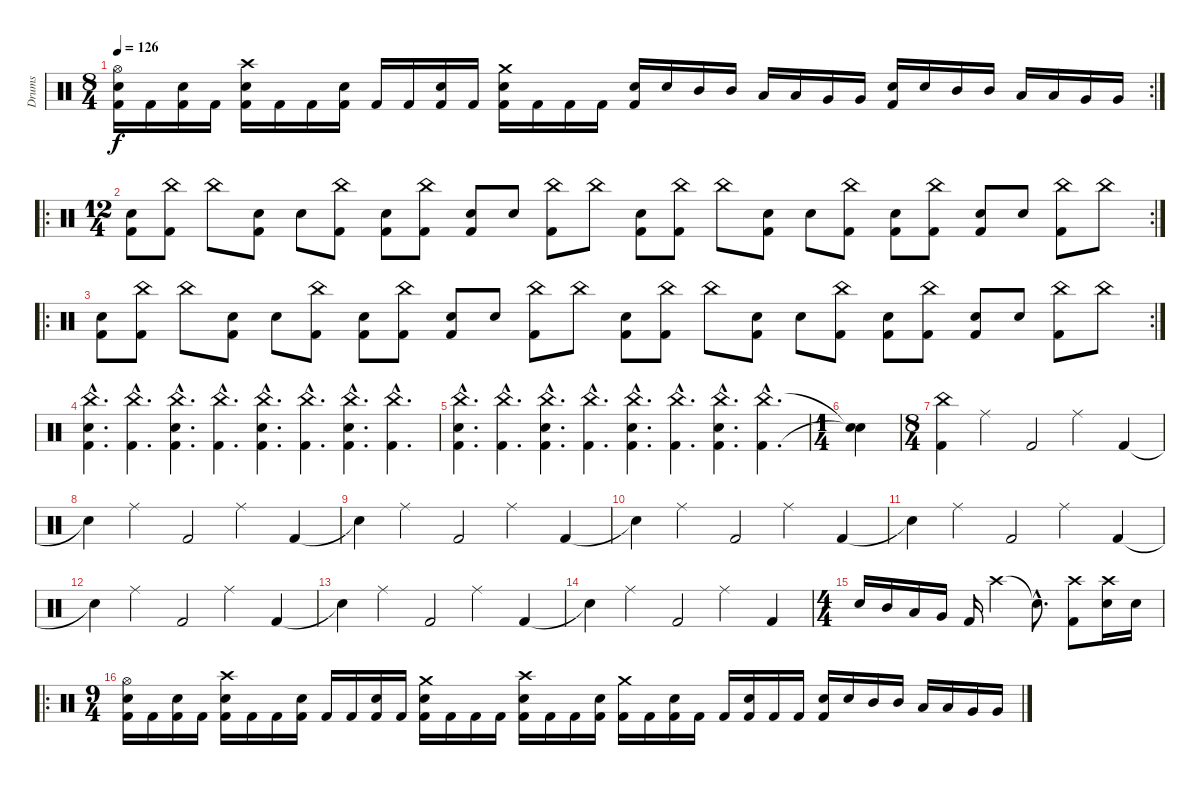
\track ("Drums" "Drums") {instrument percussion}
\staff {score}
\articulation defaults
\rc 2
\ts (8 4)
\tempo 126
\clef neutral
\ks c
("Hi-Hat (open)" "Electric Snare (hit)" "Kick (hit) 2").16{dy f} "Kick (hit) 2".16 ("Electric Snare (hit)" "Kick (hit) 2").16 "Kick (hit) 2".16 ("Crash high (hit)" "Electric Snare (hit)" "Kick (hit) 2").16 "Kick (hit) 2".16 "Kick (hit) 2".16 ("Electric Snare (hit)" "Kick (hit) 2").16 "Kick (hit) 2".16 "Kick (hit) 2".16 ("Electric Snare (hit)" "Kick (hit) 2").16 "Kick (hit) 2".16 ("Crash medium (hit)" "Electric Snare (hit)" "Kick (hit) 2").16 "Kick (hit) 2".16 "Kick (hit) 2".16 "Kick (hit) 2".16 ("Electric Snare (hit)" "Kick (hit) 2").16 "Electric Snare (hit)".16 "Mid Tom (hit)".16 "Mid Tom (hit)".16 "Low Tom (hit)".16 "Low Tom (hit)".16 "Very Low Tom (hit)".16 "Very Low Tom (hit)".16 ("Electric Snare (hit)" "Kick (hit) 2").16 "Electric Snare (hit)".16 "Mid Tom (hit)".16 "Mid Tom (hit)".16 "Low Tom (hit)".16 "Low Tom (hit)".16 "Very Low Tom (hit)".16 "Very Low Tom (hit)".16 |
\ro
\rc 2
\ts (12 4)
("Electric Snare (hit)" "Kick (hit) 2").8 ("China (hit)" "Kick (hit) 2").8 "China (hit)".8 ("Electric Snare (hit)" "Kick (hit) 2").8 "Electric Snare (hit)".8 ("China (hit)" "Kick (hit) 2").8 ("Electric Snare (hit)" "Kick (hit) 2").8 ("China (hit)" "Kick (hit) 2").8 ("Electric Snare (hit)" "Kick (hit) 2").8 "Electric Snare (hit)".8 ("China (hit)" "Kick (hit) 2").8 "China (hit)".8 ("Electric Snare (hit)" "Kick (hit) 2").8 ("China (hit)" "Kick (hit) 2").8 "China (hit)".8 ("Electric Snare (hit)" "Kick (hit) 2").8 "Electric Snare (hit)".8 ("China (hit)" "Kick (hit) 2").8 ("Electric Snare (hit)" "Kick (hit) 2").8 ("China (hit)" "Kick (hit) 2").8 ("Electric Snare (hit)" "Kick (hit) 2").8 "Electric Snare (hit)".8 ("China (hit)" "Kick (hit) 2").8 "China (hit)".8 |
\ro
\rc 2
("Electric Snare (hit)" "Kick (hit) 2").8 ("China (hit)" "Kick (hit) 2").8 "China (hit)".8 ("Electric Snare (hit)" "Kick (hit) 2").8 "Electric Snare (hit)".8 ("China (hit)" "Kick (hit) 2").8 ("Electric Snare (hit)" "Kick (hit) 2").8 ("China (hit)" "Kick (hit) 2").8 ("Electric Snare (hit)" "Kick (hit) 2").8 "Electric Snare (hit)".8 ("China (hit)" "Kick (hit) 2").8 "China (hit)".8 ("Electric Snare (hit)" "Kick (hit) 2").8 ("China (hit)" "Kick (hit) 2").8 "China (hit)".8 ("Electric Snare (hit)" "Kick (hit) 2").8 "Electric Snare (hit)".8 ("China (hit)" "Kick (hit) 2").8 ("Electric Snare (hit)" "Kick (hit) 2").8 ("China (hit)" "Kick (hit) 2").8 ("Electric Snare (hit)" "Kick (hit) 2").8 "Electric Snare (hit)".8 ("China (hit)" "Kick (hit) 2").8 "China (hit)".8 |
("China (hit)"{hac} "Electric Snare (hit)"{hac} "Kick (hit) 2"{hac}).4{d} ("China (hit)"{hac} "Kick (hit) 2"{hac}).4{d} ("China (hit)"{hac} "Electric Snare (hit)"{hac} "Kick (hit) 2"{hac}).4{d} ("China (hit)"{hac} "Kick (hit) 2"{hac}).4{d} ("China (hit)"{hac} "Electric Snare (hit)"{hac} "Kick (hit) 2"{hac}).4{d} ("China (hit)"{hac} "Kick (hit) 2"{hac}).4{d} ("China (hit)"{hac} "Electric Snare (hit)"{hac} "Kick (hit) 2"{hac}).4{d} ("China (hit)"{hac} "Kick (hit) 2"{hac}).4{d} |
("China (hit)"{hac} "Electric Snare (hit)"{hac} "Kick (hit) 2"{hac}).4{d} ("China (hit)"{hac} "Kick (hit) 2"{hac}).4{d} ("China (hit)"{hac} "Electric Snare (hit)"{hac} "Kick (hit) 2"{hac}).4{d} ("China (hit)"{hac} "Kick (hit) 2"{hac}).4{d} ("China (hit)"{hac} "Electric Snare (hit)"{hac} "Kick (hit) 2"{hac}).4{d} ("China (hit)"{hac} "Kick (hit) 2"{hac}).4{d} ("China (hit)"{hac} "Electric Snare (hit)"{hac} "Kick (hit) 2"{hac}).4{d} ("China (hit)"{hac} "Kick (hit) 2"{hac}).4{d} |
\ts (1 4)
("Snare (hit)"{t} "Snare (hit)"{t}).4 |
\ts (8 4)
("China (hit)" "Kick (hit) 2").4 "Ride (middle)".2 "Kick (hit) 2".2 "Ride (middle)".2 "Kick (hit) 2".4 |
"Snare (hit)"{t}.4 "Ride (middle)".2 "Kick (hit) 2".2 "Ride (middle)".2 "Kick (hit) 2".4 |
"Snare (hit)"{t}.4 "Ride (middle)".2 "Kick (hit) 2".2 "Ride (middle)".2 "Kick (hit) 2".4 |
"Snare (hit)"{t}.4 "Ride (middle)".2 "Kick (hit) 2".2 "Ride (middle)".2 "Kick (hit) 2".4 |
"Snare (hit)"{t}.4 "Ride (middle)".2 "Kick (hit) 2".2 "Ride (middle)".2 "Kick (hit) 2".4 |
"Snare (hit)"{t}.4 "Ride (middle)".2 "Kick (hit) 2".2 "Ride (middle)".2 "Kick (hit) 2".4 |
"Snare (hit)"{t}.4 "Ride (middle)".2 "Kick (hit) 2".2 "Ride (middle)".2 "Kick (hit) 2".4 |
"Snare (hit)"{t}.4 "Ride (middle)".2 "Kick (hit) 2".2 "Ride (middle)".2 "Kick (hit) 2".4 |
\ts (4 4)
"Electric Snare (hit)".16 "Mid Tom (hit)".16 "Low Tom (hit)".16 "Very Low Tom (hit)".16 "Kick (hit) 2".16 "Crash high (hit)".4 "Snare (hit)"{hac t}.8{d} ("Crash high (hit)" "Kick (hit) 2").8 ("Crash high (hit)" "Electric Snare (hit)").16 "Electric Snare (hit)".16 |
\ro
\ts (9 4)
("Hi-Hat (open)" "Electric Snare (hit)" "Kick (hit) 2").16 "Kick (hit) 2".16 ("Electric Snare (hit)" "Kick (hit) 2").16 "Kick (hit) 2".16 ("Crash high (hit)" "Electric Snare (hit)" "Kick (hit) 2").16 "Kick (hit) 2".16 "Kick (hit) 2".16 ("Electric Snare (hit)" "Kick (hit) 2").16 "Kick (hit) 2".16 "Kick (hit) 2".16 ("Electric Snare (hit)" "Kick (hit) 2").16 "Kick (hit) 2".16 ("Crash medium (hit)" "Electric Snare (hit)" "Kick (hit) 2").16 "Kick (hit) 2".16 "Kick (hit) 2".16 "Kick (hit) 2".16 ("Crash high (hit)" "Electric Snare (hit)" "Kick (hit) 2").16 "Kick (hit) 2".16 "Kick (hit) 2".16 ("Electric Snare (hit)" "Kick (hit) 2").16 ("Crash medium (hit)" "Kick (hit) 2").16 "Kick (hit) 2".16 ("Electric Snare (hit)" "Kick (hit) 2").16 "Kick (hit) 2".16 "Kick (hit) 2".16 ("Electric Snare (hit)" "Kick (hit) 2").16 "Kick (hit) 2".16 "Kick (hit) 2".16 ("Electric Snare (hit)" "Kick (hit) 2").16 "Electric Snare (hit)".16 "Mid Tom (hit)".16 "Mid Tom (hit)".16 "Low Tom (hit)".16 "Low Tom (hit)".16 "Very Low Tom (hit)".16 "Very Low Tom (hit)".16
